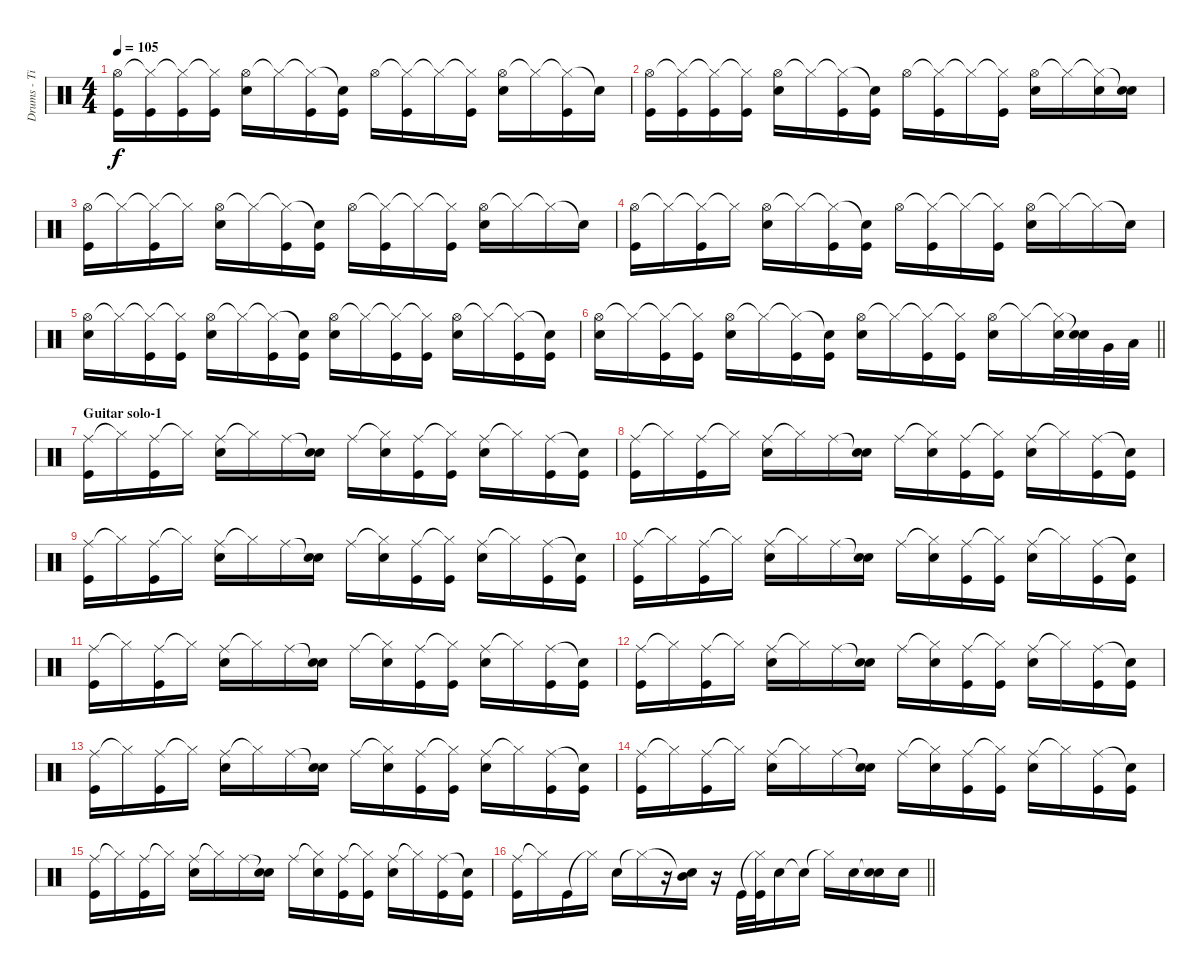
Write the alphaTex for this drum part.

\track ("Drums - Tipu" "Drums - Ti") {instrument percussion}
\staff {score}
\articulation defaults
\ts (4 4)
\tempo 105
\clef neutral
\ks c
("Hi-Hat (open)" "Kick (hit)").16{dy f} ("Hi-Hat (closed)"{t} "Kick (hit)").16 ("Hi-Hat (closed)"{t} "Kick (hit)").16 ("Hi-Hat (closed)"{t} "Kick (hit)").16 ("Hi-Hat (open)" "Electric Snare (hit)").16 "Hi-Hat (closed)"{t}.16 ("Hi-Hat (closed)"{t} "Kick (hit)").16 ("Snare (hit)"{t} "Kick (hit)").16 "Hi-Hat (open)".16 ("Hi-Hat (closed)"{t} "Kick (hit)").16 "Hi-Hat (closed)"{t}.16 ("Hi-Hat (closed)"{t} "Kick (hit)").16 ("Hi-Hat (open)" "Electric Snare (hit)").16 "Hi-Hat (closed)"{t}.16 ("Hi-Hat (closed)"{t} "Kick (hit)").16 "Snare (hit)"{t}.16 |
("Hi-Hat (open)" "Kick (hit)").16 ("Hi-Hat (closed)"{t} "Kick (hit)").16 ("Hi-Hat (closed)"{t} "Kick (hit)").16 ("Hi-Hat (closed)"{t} "Kick (hit)").16 ("Hi-Hat (open)" "Electric Snare (hit)").16 "Hi-Hat (closed)"{t}.16 ("Hi-Hat (closed)"{t} "Kick (hit)").16 ("Snare (hit)"{t} "Kick (hit)").16 "Hi-Hat (open)".16 ("Hi-Hat (closed)"{t} "Kick (hit)").16 "Hi-Hat (closed)"{t}.16 ("Hi-Hat (closed)"{t} "Kick (hit)").16 ("Hi-Hat (open)" "Electric Snare (hit)").16 "Hi-Hat (closed)"{t}.16 ("Hi-Hat (closed)"{t} "Electric Snare (hit)").16 ("Snare (hit)"{t} "Electric Snare (hit)").16 |
("Hi-Hat (open)" "Kick (hit)").16 "Hi-Hat (closed)"{t}.16 ("Hi-Hat (closed)"{t} "Kick (hit)").16 "Hi-Hat (closed)"{t}.16 ("Hi-Hat (open)" "Electric Snare (hit)").16 "Hi-Hat (closed)"{t}.16 ("Hi-Hat (closed)"{t} "Kick (hit)").16 ("Snare (hit)"{t} "Kick (hit)").16 "Hi-Hat (open)".16 ("Hi-Hat (closed)"{t} "Kick (hit)").16 "Hi-Hat (closed)"{t}.16 ("Hi-Hat (closed)"{t} "Kick (hit)").16 ("Hi-Hat (open)" "Electric Snare (hit)").16 "Hi-Hat (closed)"{t}.16 "Hi-Hat (closed)"{t}.16 "Snare (hit)"{t}.16 |
("Hi-Hat (open)" "Kick (hit)").16 "Hi-Hat (closed)"{t}.16 ("Hi-Hat (closed)"{t} "Kick (hit)").16 "Hi-Hat (closed)"{t}.16 ("Hi-Hat (open)" "Electric Snare (hit)").16 "Hi-Hat (closed)"{t}.16 ("Hi-Hat (closed)"{t} "Kick (hit)").16 ("Snare (hit)"{t} "Kick (hit)").16 "Hi-Hat (open)".16 ("Hi-Hat (closed)"{t} "Kick (hit)").16 "Hi-Hat (closed)"{t}.16 ("Hi-Hat (closed)"{t} "Kick (hit)").16 ("Hi-Hat (open)" "Electric Snare (hit)").16 "Hi-Hat (closed)"{t}.16 "Hi-Hat (closed)"{t}.16 "Snare (hit)"{t}.16 |
("Hi-Hat (open)" "Electric Snare (hit)").16 "Hi-Hat (closed)"{t}.16 ("Hi-Hat (closed)"{t} "Kick (hit)").16 ("Hi-Hat (closed)"{t} "Kick (hit)").16 ("Hi-Hat (open)" "Electric Snare (hit)").16 "Hi-Hat (closed)"{t}.16 ("Hi-Hat (closed)"{t} "Kick (hit)").16 ("Snare (hit)"{t} "Kick (hit)").16 ("Hi-Hat (open)" "Electric Snare (hit)").16 "Hi-Hat (closed)"{t}.16 ("Hi-Hat (closed)"{t} "Kick (hit)").16 ("Hi-Hat (closed)"{t} "Kick (hit)").16 ("Hi-Hat (open)" "Electric Snare (hit)").16 "Hi-Hat (closed)"{t}.16 ("Hi-Hat (closed)"{t} "Kick (hit)").16 ("Snare (hit)"{t} "Kick (hit)").16 |
\barLineRight lightlight
("Hi-Hat (open)" "Electric Snare (hit)").16 "Hi-Hat (closed)"{t}.16 ("Hi-Hat (closed)"{t} "Kick (hit)").16 ("Hi-Hat (closed)"{t} "Kick (hit)").16 ("Hi-Hat (open)" "Electric Snare (hit)").16 "Hi-Hat (closed)"{t}.16 ("Hi-Hat (closed)"{t} "Kick (hit)").16 ("Snare (hit)"{t} "Kick (hit)").16 ("Hi-Hat (open)" "Electric Snare (hit)").16 "Hi-Hat (closed)"{t}.16 ("Hi-Hat (closed)"{t} "Kick (hit)").16 ("Hi-Hat (closed)"{t} "Kick (hit)").16 ("Hi-Hat (open)" "Electric Snare (hit)").16 "Hi-Hat (closed)"{t}.16 ("Hi-Hat (closed)"{t} "Electric Snare (hit)").32 ("Snare (hit)"{t} "Electric Snare (hit)").32 "Very Low Tom (hit)".32 "Low Floor Tom (hit)".32 |
\section ("" "Guitar solo-1")
("Ride (middle)" "Kick (hit)").16 "Hi-Hat (closed)"{t}.16 ("Ride (middle)" "Kick (hit)").16 "Hi-Hat (closed)"{t}.16 ("Ride (middle)" "Electric Snare (hit)").16 "Hi-Hat (closed)"{t}.16 "Ride (middle)".16 ("Snare (hit)"{t} "Electric Snare (hit)").16 "Ride (middle)".16 ("Hi-Hat (closed)"{t} "Electric Snare (hit)").16 ("Ride (middle)" "Kick (hit)").16 ("Hi-Hat (closed)"{t} "Kick (hit)").16 ("Ride (middle)" "Electric Snare (hit)").16 "Hi-Hat (closed)"{t}.16 ("Ride (middle)" "Kick (hit)").16 ("Snare (hit)"{t} "Kick (hit)").16 |
("Ride (middle)" "Kick (hit)").16 "Hi-Hat (closed)"{t}.16 ("Ride (middle)" "Kick (hit)").16 "Hi-Hat (closed)"{t}.16 ("Ride (middle)" "Electric Snare (hit)").16 "Hi-Hat (closed)"{t}.16 "Ride (middle)".16 ("Snare (hit)"{t} "Electric Snare (hit)").16 "Ride (middle)".16 ("Hi-Hat (closed)"{t} "Electric Snare (hit)").16 ("Ride (middle)" "Kick (hit)").16 ("Hi-Hat (closed)"{t} "Kick (hit)").16 ("Ride (middle)" "Electric Snare (hit)").16 "Hi-Hat (closed)"{t}.16 ("Ride (middle)" "Kick (hit)").16 ("Snare (hit)"{t} "Kick (hit)").16 |
("Ride (middle)" "Kick (hit)").16 "Hi-Hat (closed)"{t}.16 ("Ride (middle)" "Kick (hit)").16 "Hi-Hat (closed)"{t}.16 ("Ride (middle)" "Electric Snare (hit)").16 "Hi-Hat (closed)"{t}.16 "Ride (middle)".16 ("Snare (hit)"{t} "Electric Snare (hit)").16 "Ride (middle)".16 ("Hi-Hat (closed)"{t} "Electric Snare (hit)").16 ("Ride (middle)" "Kick (hit)").16 ("Hi-Hat (closed)"{t} "Kick (hit)").16 ("Ride (middle)" "Electric Snare (hit)").16 "Hi-Hat (closed)"{t}.16 ("Ride (middle)" "Kick (hit)").16 ("Snare (hit)"{t} "Kick (hit)").16 |
("Ride (middle)" "Kick (hit)").16 "Hi-Hat (closed)"{t}.16 ("Ride (middle)" "Kick (hit)").16 "Hi-Hat (closed)"{t}.16 ("Ride (middle)" "Electric Snare (hit)").16 "Hi-Hat (closed)"{t}.16 "Ride (middle)".16 ("Snare (hit)"{t} "Electric Snare (hit)").16 "Ride (middle)".16 ("Hi-Hat (closed)"{t} "Electric Snare (hit)").16 ("Ride (middle)" "Kick (hit)").16 ("Hi-Hat (closed)"{t} "Kick (hit)").16 ("Ride (middle)" "Electric Snare (hit)").16 "Hi-Hat (closed)"{t}.16 ("Ride (middle)" "Kick (hit)").16 ("Snare (hit)"{t} "Kick (hit)").16 |
("Ride (middle)" "Kick (hit)").16 "Hi-Hat (closed)"{t}.16 ("Ride (middle)" "Kick (hit)").16 "Hi-Hat (closed)"{t}.16 ("Ride (middle)" "Electric Snare (hit)").16 "Hi-Hat (closed)"{t}.16 "Ride (middle)".16 ("Snare (hit)"{t} "Electric Snare (hit)").16 "Ride (middle)".16 ("Hi-Hat (closed)"{t} "Electric Snare (hit)").16 ("Ride (middle)" "Kick (hit)").16 ("Hi-Hat (closed)"{t} "Kick (hit)").16 ("Ride (middle)" "Electric Snare (hit)").16 "Hi-Hat (closed)"{t}.16 ("Ride (middle)" "Kick (hit)").16 ("Snare (hit)"{t} "Kick (hit)").16 |
("Ride (middle)" "Kick (hit)").16 "Hi-Hat (closed)"{t}.16 ("Ride (middle)" "Kick (hit)").16 "Hi-Hat (closed)"{t}.16 ("Ride (middle)" "Electric Snare (hit)").16 "Hi-Hat (closed)"{t}.16 "Ride (middle)".16 ("Snare (hit)"{t} "Electric Snare (hit)").16 "Ride (middle)".16 ("Hi-Hat (closed)"{t} "Electric Snare (hit)").16 ("Ride (middle)" "Kick (hit)").16 ("Hi-Hat (closed)"{t} "Kick (hit)").16 ("Ride (middle)" "Electric Snare (hit)").16 "Hi-Hat (closed)"{t}.16 ("Ride (middle)" "Kick (hit)").16 ("Snare (hit)"{t} "Kick (hit)").16 |
("Ride (middle)" "Kick (hit)").16 "Hi-Hat (closed)"{t}.16 ("Ride (middle)" "Kick (hit)").16 "Hi-Hat (closed)"{t}.16 ("Ride (middle)" "Electric Snare (hit)").16 "Hi-Hat (closed)"{t}.16 "Ride (middle)".16 ("Snare (hit)"{t} "Electric Snare (hit)").16 "Ride (middle)".16 ("Hi-Hat (closed)"{t} "Electric Snare (hit)").16 ("Ride (middle)" "Kick (hit)").16 ("Hi-Hat (closed)"{t} "Kick (hit)").16 ("Ride (middle)" "Electric Snare (hit)").16 "Hi-Hat (closed)"{t}.16 ("Ride (middle)" "Kick (hit)").16 ("Snare (hit)"{t} "Kick (hit)").16 |
("Ride (middle)" "Kick (hit)").16 "Hi-Hat (closed)"{t}.16 ("Ride (middle)" "Kick (hit)").16 "Hi-Hat (closed)"{t}.16 ("Ride (middle)" "Electric Snare (hit)").16 "Hi-Hat (closed)"{t}.16 "Ride (middle)".16 ("Snare (hit)"{t} "Electric Snare (hit)").16 "Ride (middle)".16 ("Hi-Hat (closed)"{t} "Electric Snare (hit)").16 ("Ride (middle)" "Kick (hit)").16 ("Hi-Hat (closed)"{t} "Kick (hit)").16 ("Ride (middle)" "Electric Snare (hit)").16 "Hi-Hat (closed)"{t}.16 ("Ride (middle)" "Kick (hit)").16 ("Snare (hit)"{t} "Kick (hit)").16 |
("Ride (middle)" "Kick (hit)").16 "Hi-Hat (closed)"{t}.16 ("Ride (middle)" "Kick (hit)").16 "Hi-Hat (closed)"{t}.16 ("Ride (middle)" "Electric Snare (hit)").16 "Hi-Hat (closed)"{t}.16 "Ride (middle)".16 ("Snare (hit)"{t} "Electric Snare (hit)").16 "Ride (middle)".16 ("Hi-Hat (closed)"{t} "Electric Snare (hit)").16 ("Ride (middle)" "Kick (hit)").16 ("Hi-Hat (closed)"{t} "Kick (hit)").16 ("Ride (middle)" "Electric Snare (hit)").16 "Hi-Hat (closed)"{t}.16 ("Ride (middle)" "Kick (hit)").16 ("Snare (hit)"{t} "Kick (hit)").16 |
\barLineRight lightlight
("Ride (middle)" "Kick (hit)").16 "Hi-Hat (closed)"{t}.16 "Kick (hit)".16 "Hi-Hat (closed)"{t}.16 "Electric Snare (hit)".16 "Hi-Hat (closed)"{t}.16 r.16 ("Snare (hit)"{t} "Mid Tom (hit)").16 r.16 "Kick (hit)".32 ("Hi-Hat (closed)"{t} "Kick (hit)").32 "Electric Snare (hit)".16 "Snare (hit)"{t}.16 "Hi-Hat (closed)"{t}.16 "Electric Snare (hit)".16 ("Snare (hit)"{t} "Electric Snare (hit)").16 "Electric Snare (hit)".16
